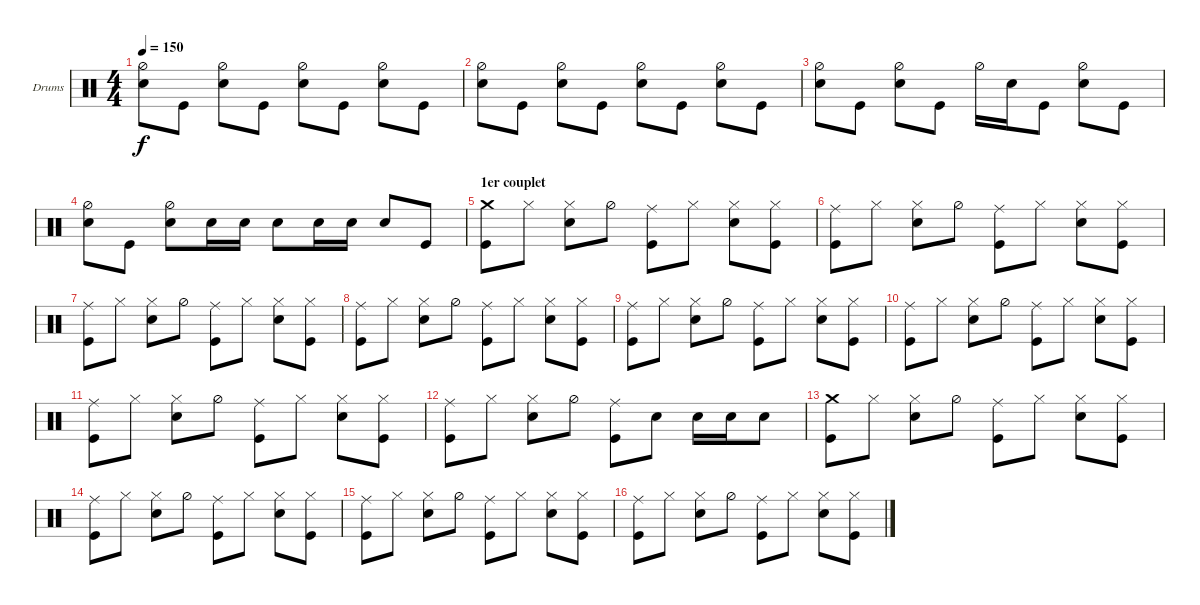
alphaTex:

\bracketExtendMode groupsimilarinstruments
\firstSystemTrackNameOrientation horizontal
\otherSystemsTrackNameOrientation horizontal
\track ("Drumkit" "Drums") {instrument percussion}
\staff {score}
\articulation defaults
\ts (4 4)
\tempo 150
\clef neutral
\ks c
("Hi-Hat (half)" "Snare (hit) 2").8{dy f} "Kick (hit)".8 ("Hi-Hat (half)" "Snare (hit) 2").8 "Kick (hit)".8 ("Hi-Hat (half)" "Snare (hit) 2").8 "Kick (hit)".8 ("Hi-Hat (half)" "Snare (hit) 2").8 "Kick (hit)".8 |
("Hi-Hat (half)" "Snare (hit) 2").8 "Kick (hit)".8 ("Hi-Hat (half)" "Snare (hit) 2").8 "Kick (hit)".8 ("Hi-Hat (half)" "Snare (hit) 2").8 "Kick (hit)".8 ("Hi-Hat (half)" "Snare (hit) 2").8 "Kick (hit)".8 |
("Hi-Hat (half)" "Snare (hit) 2").8 "Kick (hit)".8 ("Hi-Hat (half)" "Snare (hit) 2").8 "Kick (hit)".8 "Hi-Hat (half)".16 "Snare (hit) 2".16 "Kick (hit)".8 ("Hi-Hat (half)" "Snare (hit) 2").8 "Kick (hit)".8 |
("Hi-Hat (half)" "Snare (hit) 2").8 "Kick (hit)".8 ("Hi-Hat (half)" "Snare (hit) 2").8 "Snare (hit) 2".16 "Snare (hit) 2".16 "Snare (hit) 2".8 "Snare (hit) 2".16 "Snare (hit) 2".16 "Snare (hit) 2".8 "Kick (hit)".8 |
\section ("" "1er couplet")
("Crash medium (hit)" "Kick (hit)").8 "Hi-Hat (closed)".8 ("Snare (hit) 2" "Hi-Hat (closed)").8 "Hi-Hat (half)".8 ("Kick (hit)" "Ride (middle)").8 "Hi-Hat (closed)".8 ("Hi-Hat (closed)" "Snare (hit) 2").8 ("Hi-Hat (closed)" "Kick (hit)").8 |
("Kick (hit)" "Ride (middle)").8 "Hi-Hat (closed)".8 ("Hi-Hat (closed)" "Snare (hit) 2").8 "Hi-Hat (half)".8 ("Kick (hit)" "Ride (middle)").8 "Hi-Hat (closed)".8 ("Hi-Hat (closed)" "Snare (hit) 2").8 ("Hi-Hat (closed)" "Kick (hit)").8 |
("Kick (hit)" "Ride (middle)").8 "Hi-Hat (closed)".8 ("Hi-Hat (closed)" "Snare (hit) 2").8 "Hi-Hat (half)".8 ("Kick (hit)" "Ride (middle)").8 "Hi-Hat (closed)".8 ("Hi-Hat (closed)" "Snare (hit) 2").8 ("Hi-Hat (closed)" "Kick (hit)").8 |
("Kick (hit)" "Ride (middle)").8 "Hi-Hat (closed)".8 ("Hi-Hat (closed)" "Snare (hit) 2").8 "Hi-Hat (half)".8 ("Kick (hit)" "Ride (middle)").8 "Hi-Hat (closed)".8 ("Hi-Hat (closed)" "Snare (hit) 2").8 ("Hi-Hat (closed)" "Kick (hit)").8 |
("Kick (hit)" "Ride (middle)").8 "Hi-Hat (closed)".8 ("Hi-Hat (closed)" "Snare (hit) 2").8 "Hi-Hat (half)".8 ("Kick (hit)" "Ride (middle)").8 "Hi-Hat (closed)".8 ("Hi-Hat (closed)" "Snare (hit) 2").8 ("Hi-Hat (closed)" "Kick (hit)").8 |
("Kick (hit)" "Ride (middle)").8 "Hi-Hat (closed)".8 ("Hi-Hat (closed)" "Snare (hit) 2").8 "Hi-Hat (half)".8 ("Kick (hit)" "Ride (middle)").8 "Hi-Hat (closed)".8 ("Hi-Hat (closed)" "Snare (hit) 2").8 ("Hi-Hat (closed)" "Kick (hit)").8 |
("Kick (hit)" "Ride (middle)").8 "Hi-Hat (closed)".8 ("Hi-Hat (closed)" "Snare (hit) 2").8 "Hi-Hat (half)".8 ("Kick (hit)" "Ride (middle)").8 "Hi-Hat (closed)".8 ("Hi-Hat (closed)" "Snare (hit) 2").8 ("Hi-Hat (closed)" "Kick (hit)").8 |
("Kick (hit)" "Ride (middle)").8 "Hi-Hat (closed)".8 ("Hi-Hat (closed)" "Snare (hit) 2").8 "Hi-Hat (half)".8 ("Kick (hit)" "Ride (middle)").8 "Snare (hit) 2".8 "Snare (hit) 2".16 "Snare (hit) 2".16 "Snare (hit) 2".8 |
("Crash medium (hit)" "Kick (hit)").8 "Hi-Hat (closed)".8 ("Hi-Hat (closed)" "Snare (hit) 2").8 "Hi-Hat (half)".8 ("Kick (hit)" "Ride (middle)").8 "Hi-Hat (closed)".8 ("Hi-Hat (closed)" "Snare (hit) 2").8 ("Hi-Hat (closed)" "Kick (hit)").8 |
("Kick (hit)" "Ride (middle)").8 "Hi-Hat (closed)".8 ("Hi-Hat (closed)" "Snare (hit) 2").8 "Hi-Hat (half)".8 ("Kick (hit)" "Ride (middle)").8 "Hi-Hat (closed)".8 ("Hi-Hat (closed)" "Snare (hit) 2").8 ("Hi-Hat (closed)" "Kick (hit)").8 |
("Kick (hit)" "Ride (middle)").8 "Hi-Hat (closed)".8 ("Hi-Hat (closed)" "Snare (hit) 2").8 "Hi-Hat (half)".8 ("Kick (hit)" "Ride (middle)").8 "Hi-Hat (closed)".8 ("Hi-Hat (closed)" "Snare (hit) 2").8 ("Hi-Hat (closed)" "Kick (hit)").8 |
("Kick (hit)" "Ride (middle)").8 "Hi-Hat (closed)".8 ("Hi-Hat (closed)" "Snare (hit) 2").8 "Hi-Hat (half)".8 ("Kick (hit)" "Ride (middle)").8 "Hi-Hat (closed)".8 ("Hi-Hat (closed)" "Snare (hit) 2").8 ("Hi-Hat (closed)" "Kick (hit)").8
